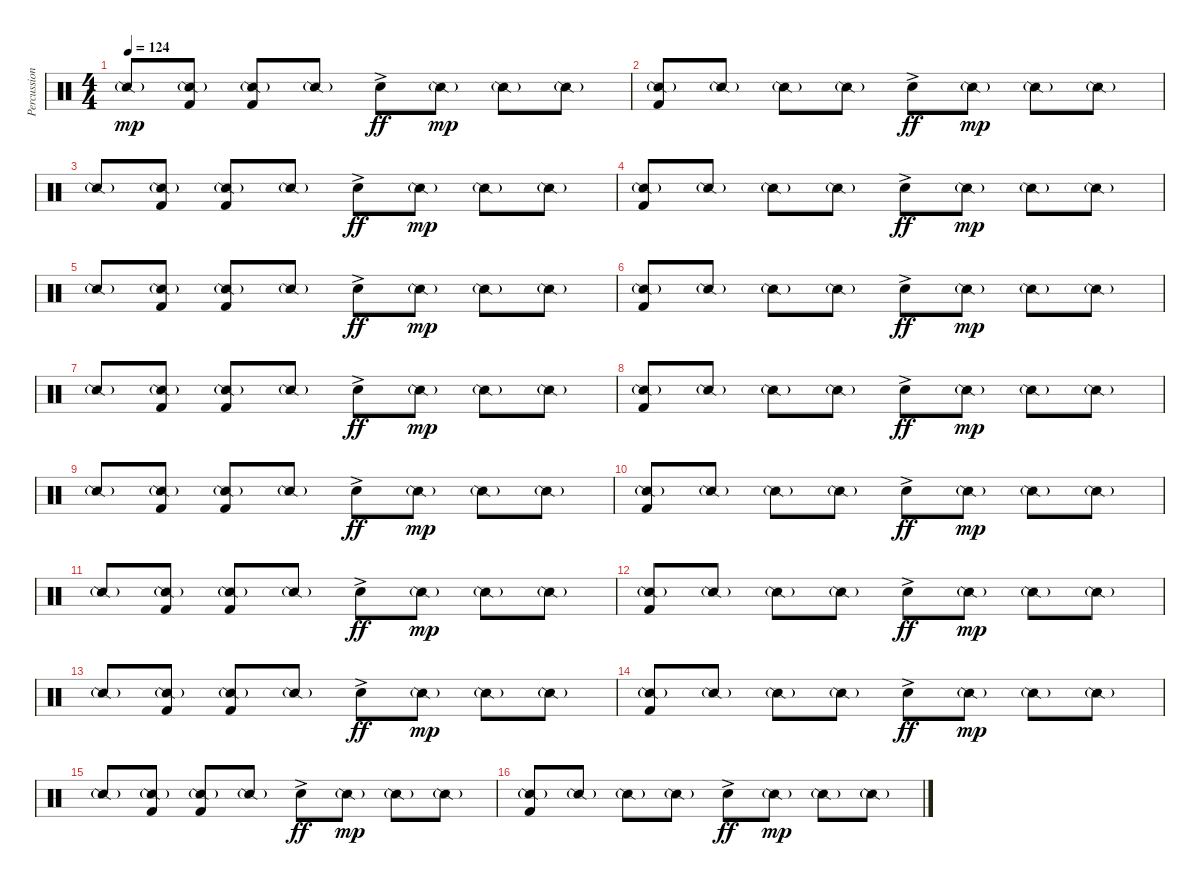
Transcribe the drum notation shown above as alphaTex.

\track ("Percussion" "Percussion") {instrument percussion}
\staff {score}
\articulation defaults
\ts (4 4)
\tempo 124
\clef neutral
\ks c "Snare (side stick) 2"{g}.8{dy mp}
("Snare (side stick) 2"{g} "Kick (hit) 2").8 ("Snare (side stick) 2"{g} "Kick (hit) 2").8 "Snare (side stick) 2"{g}.8 "Electric Snare (hit)"{ac}.8{dy ff} "Snare (side stick) 2"{g}.8{dy mp} "Snare (side stick) 2"{g}.8 "Snare (side stick) 2"{g}.8 |
("Snare (side stick) 2"{g} "Kick (hit) 2").8 "Snare (side stick) 2"{g}.8 "Snare (side stick) 2"{g}.8 "Snare (side stick) 2"{g}.8 "Electric Snare (hit)"{ac}.8{dy ff} "Snare (side stick) 2"{g}.8{dy mp} "Snare (side stick) 2"{g}.8 "Snare (side stick) 2"{g}.8 |
"Snare (side stick) 2"{g}.8 ("Snare (side stick) 2"{g} "Kick (hit) 2").8 ("Snare (side stick) 2"{g} "Kick (hit) 2").8 "Snare (side stick) 2"{g}.8 "Electric Snare (hit)"{ac}.8{dy ff} "Snare (side stick) 2"{g}.8{dy mp} "Snare (side stick) 2"{g}.8 "Snare (side stick) 2"{g}.8 |
("Snare (side stick) 2"{g} "Kick (hit) 2").8 "Snare (side stick) 2"{g}.8 "Snare (side stick) 2"{g}.8 "Snare (side stick) 2"{g}.8 "Electric Snare (hit)"{ac}.8{dy ff} "Snare (side stick) 2"{g}.8{dy mp} "Snare (side stick) 2"{g}.8 "Snare (side stick) 2"{g}.8 |
"Snare (side stick) 2"{g}.8 ("Snare (side stick) 2"{g} "Kick (hit) 2").8 ("Snare (side stick) 2"{g} "Kick (hit) 2").8 "Snare (side stick) 2"{g}.8 "Electric Snare (hit)"{ac}.8{dy ff} "Snare (side stick) 2"{g}.8{dy mp} "Snare (side stick) 2"{g}.8 "Snare (side stick) 2"{g}.8 |
("Snare (side stick) 2"{g} "Kick (hit) 2").8 "Snare (side stick) 2"{g}.8 "Snare (side stick) 2"{g}.8 "Snare (side stick) 2"{g}.8 "Electric Snare (hit)"{ac}.8{dy ff} "Snare (side stick) 2"{g}.8{dy mp} "Snare (side stick) 2"{g}.8 "Snare (side stick) 2"{g}.8 |
"Snare (side stick) 2"{g}.8 ("Snare (side stick) 2"{g} "Kick (hit) 2").8 ("Snare (side stick) 2"{g} "Kick (hit) 2").8 "Snare (side stick) 2"{g}.8 "Electric Snare (hit)"{ac}.8{dy ff} "Snare (side stick) 2"{g}.8{dy mp} "Snare (side stick) 2"{g}.8 "Snare (side stick) 2"{g}.8 |
("Snare (side stick) 2"{g} "Kick (hit) 2").8 "Snare (side stick) 2"{g}.8 "Snare (side stick) 2"{g}.8 "Snare (side stick) 2"{g}.8 "Electric Snare (hit)"{ac}.8{dy ff} "Snare (side stick) 2"{g}.8{dy mp} "Snare (side stick) 2"{g}.8 "Snare (side stick) 2"{g}.8 |
"Snare (side stick) 2"{g}.8 ("Snare (side stick) 2"{g} "Kick (hit) 2").8 ("Snare (side stick) 2"{g} "Kick (hit) 2").8 "Snare (side stick) 2"{g}.8 "Electric Snare (hit)"{ac}.8{dy ff} "Snare (side stick) 2"{g}.8{dy mp} "Snare (side stick) 2"{g}.8 "Snare (side stick) 2"{g}.8 |
("Snare (side stick) 2"{g} "Kick (hit) 2").8 "Snare (side stick) 2"{g}.8 "Snare (side stick) 2"{g}.8 "Snare (side stick) 2"{g}.8 "Electric Snare (hit)"{ac}.8{dy ff} "Snare (side stick) 2"{g}.8{dy mp} "Snare (side stick) 2"{g}.8 "Snare (side stick) 2"{g}.8 |
"Snare (side stick) 2"{g}.8 ("Snare (side stick) 2"{g} "Kick (hit) 2").8 ("Snare (side stick) 2"{g} "Kick (hit) 2").8 "Snare (side stick) 2"{g}.8 "Electric Snare (hit)"{ac}.8{dy ff} "Snare (side stick) 2"{g}.8{dy mp} "Snare (side stick) 2"{g}.8 "Snare (side stick) 2"{g}.8 |
("Snare (side stick) 2"{g} "Kick (hit) 2").8 "Snare (side stick) 2"{g}.8 "Snare (side stick) 2"{g}.8 "Snare (side stick) 2"{g}.8 "Electric Snare (hit)"{ac}.8{dy ff} "Snare (side stick) 2"{g}.8{dy mp} "Snare (side stick) 2"{g}.8 "Snare (side stick) 2"{g}.8 |
"Snare (side stick) 2"{g}.8 ("Snare (side stick) 2"{g} "Kick (hit) 2").8 ("Snare (side stick) 2"{g} "Kick (hit) 2").8 "Snare (side stick) 2"{g}.8 "Electric Snare (hit)"{ac}.8{dy ff} "Snare (side stick) 2"{g}.8{dy mp} "Snare (side stick) 2"{g}.8 "Snare (side stick) 2"{g}.8 |
("Snare (side stick) 2"{g} "Kick (hit) 2").8 "Snare (side stick) 2"{g}.8 "Snare (side stick) 2"{g}.8 "Snare (side stick) 2"{g}.8 "Electric Snare (hit)"{ac}.8{dy ff} "Snare (side stick) 2"{g}.8{dy mp} "Snare (side stick) 2"{g}.8 "Snare (side stick) 2"{g}.8 |
"Snare (side stick) 2"{g}.8 ("Snare (side stick) 2"{g} "Kick (hit) 2").8 ("Snare (side stick) 2"{g} "Kick (hit) 2").8 "Snare (side stick) 2"{g}.8 "Electric Snare (hit)"{ac}.8{dy ff} "Snare (side stick) 2"{g}.8{dy mp} "Snare (side stick) 2"{g}.8 "Snare (side stick) 2"{g}.8 |
("Snare (side stick) 2"{g} "Kick (hit) 2").8 "Snare (side stick) 2"{g}.8 "Snare (side stick) 2"{g}.8 "Snare (side stick) 2"{g}.8 "Electric Snare (hit)"{ac}.8{dy ff} "Snare (side stick) 2"{g}.8{dy mp} "Snare (side stick) 2"{g}.8 "Snare (side stick) 2"{g}.8
